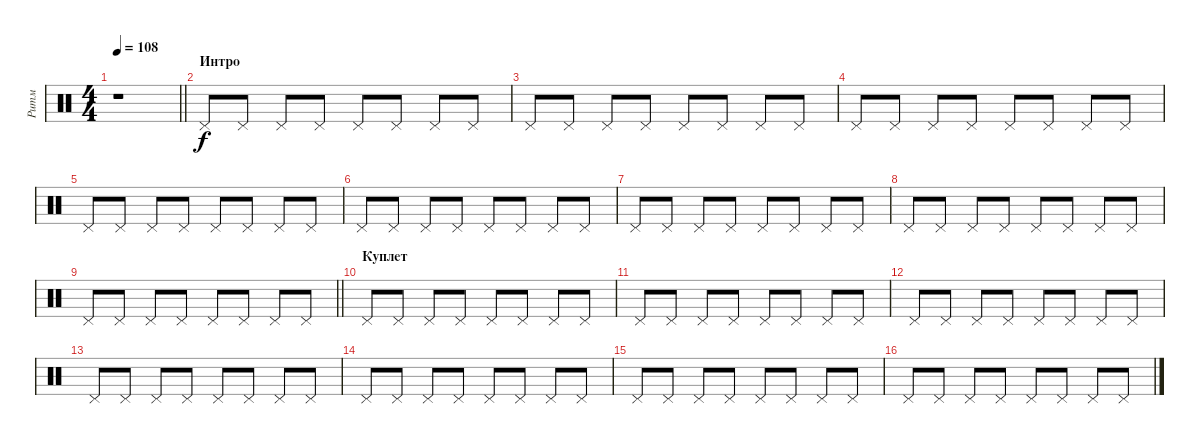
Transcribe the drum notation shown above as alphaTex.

\track ("Ритм" "Ритм") {instrument percussion}
\staff {score}
\articulation defaults
\ts (4 4)
\tempo 108
\clef neutral
\barLineRight lightlight
\ks c
r.1{dy f} |
\section ("" "Интро")
"Pedal Hi-Hat (hit)".8 "Pedal Hi-Hat (hit)".8 "Pedal Hi-Hat (hit)".8 "Pedal Hi-Hat (hit)".8 "Pedal Hi-Hat (hit)".8 "Pedal Hi-Hat (hit)".8 "Pedal Hi-Hat (hit)".8 "Pedal Hi-Hat (hit)".8 |
"Pedal Hi-Hat (hit)".8 "Pedal Hi-Hat (hit)".8 "Pedal Hi-Hat (hit)".8 "Pedal Hi-Hat (hit)".8 "Pedal Hi-Hat (hit)".8 "Pedal Hi-Hat (hit)".8 "Pedal Hi-Hat (hit)".8 "Pedal Hi-Hat (hit)".8 |
"Pedal Hi-Hat (hit)".8 "Pedal Hi-Hat (hit)".8 "Pedal Hi-Hat (hit)".8 "Pedal Hi-Hat (hit)".8 "Pedal Hi-Hat (hit)".8 "Pedal Hi-Hat (hit)".8 "Pedal Hi-Hat (hit)".8 "Pedal Hi-Hat (hit)".8 |
"Pedal Hi-Hat (hit)".8 "Pedal Hi-Hat (hit)".8 "Pedal Hi-Hat (hit)".8 "Pedal Hi-Hat (hit)".8 "Pedal Hi-Hat (hit)".8 "Pedal Hi-Hat (hit)".8 "Pedal Hi-Hat (hit)".8 "Pedal Hi-Hat (hit)".8 |
"Pedal Hi-Hat (hit)".8 "Pedal Hi-Hat (hit)".8 "Pedal Hi-Hat (hit)".8 "Pedal Hi-Hat (hit)".8 "Pedal Hi-Hat (hit)".8 "Pedal Hi-Hat (hit)".8 "Pedal Hi-Hat (hit)".8 "Pedal Hi-Hat (hit)".8 |
"Pedal Hi-Hat (hit)".8 "Pedal Hi-Hat (hit)".8 "Pedal Hi-Hat (hit)".8 "Pedal Hi-Hat (hit)".8 "Pedal Hi-Hat (hit)".8 "Pedal Hi-Hat (hit)".8 "Pedal Hi-Hat (hit)".8 "Pedal Hi-Hat (hit)".8 |
"Pedal Hi-Hat (hit)".8 "Pedal Hi-Hat (hit)".8 "Pedal Hi-Hat (hit)".8 "Pedal Hi-Hat (hit)".8 "Pedal Hi-Hat (hit)".8 "Pedal Hi-Hat (hit)".8 "Pedal Hi-Hat (hit)".8 "Pedal Hi-Hat (hit)".8 |
\barLineRight lightlight "Pedal Hi-Hat (hit)".8 "Pedal Hi-Hat (hit)".8 "Pedal Hi-Hat (hit)".8 "Pedal Hi-Hat (hit)".8 "Pedal Hi-Hat (hit)".8 "Pedal Hi-Hat (hit)".8 "Pedal Hi-Hat (hit)".8 "Pedal Hi-Hat (hit)".8
|
\section ("" "Куплет")
"Pedal Hi-Hat (hit)".8 "Pedal Hi-Hat (hit)".8 "Pedal Hi-Hat (hit)".8 "Pedal Hi-Hat (hit)".8 "Pedal Hi-Hat (hit)".8 "Pedal Hi-Hat (hit)".8 "Pedal Hi-Hat (hit)".8 "Pedal Hi-Hat (hit)".8 |
"Pedal Hi-Hat (hit)".8 "Pedal Hi-Hat (hit)".8 "Pedal Hi-Hat (hit)".8 "Pedal Hi-Hat (hit)".8 "Pedal Hi-Hat (hit)".8 "Pedal Hi-Hat (hit)".8 "Pedal Hi-Hat (hit)".8 "Pedal Hi-Hat (hit)".8 |
"Pedal Hi-Hat (hit)".8 "Pedal Hi-Hat (hit)".8 "Pedal Hi-Hat (hit)".8 "Pedal Hi-Hat (hit)".8 "Pedal Hi-Hat (hit)".8 "Pedal Hi-Hat (hit)".8 "Pedal Hi-Hat (hit)".8 "Pedal Hi-Hat (hit)".8 |
"Pedal Hi-Hat (hit)".8 "Pedal Hi-Hat (hit)".8 "Pedal Hi-Hat (hit)".8 "Pedal Hi-Hat (hit)".8 "Pedal Hi-Hat (hit)".8 "Pedal Hi-Hat (hit)".8 "Pedal Hi-Hat (hit)".8 "Pedal Hi-Hat (hit)".8 |
"Pedal Hi-Hat (hit)".8 "Pedal Hi-Hat (hit)".8 "Pedal Hi-Hat (hit)".8 "Pedal Hi-Hat (hit)".8 "Pedal Hi-Hat (hit)".8 "Pedal Hi-Hat (hit)".8 "Pedal Hi-Hat (hit)".8 "Pedal Hi-Hat (hit)".8 |
"Pedal Hi-Hat (hit)".8 "Pedal Hi-Hat (hit)".8 "Pedal Hi-Hat (hit)".8 "Pedal Hi-Hat (hit)".8 "Pedal Hi-Hat (hit)".8 "Pedal Hi-Hat (hit)".8 "Pedal Hi-Hat (hit)".8 "Pedal Hi-Hat (hit)".8 |
"Pedal Hi-Hat (hit)".8 "Pedal Hi-Hat (hit)".8 "Pedal Hi-Hat (hit)".8 "Pedal Hi-Hat (hit)".8 "Pedal Hi-Hat (hit)".8 "Pedal Hi-Hat (hit)".8 "Pedal Hi-Hat (hit)".8 "Pedal Hi-Hat (hit)".8
